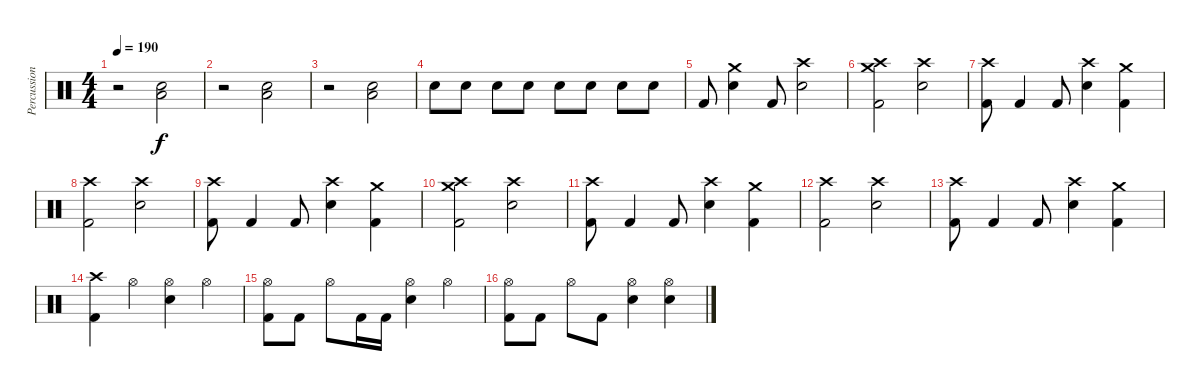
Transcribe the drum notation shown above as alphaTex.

\track ("Percussion" "Percussion") {instrument percussion}
\staff {score}
\articulation defaults
\ts (4 4)
\tempo 190
\clef neutral
\ks c
r.2{dy f} ("Low Floor Tom (hit)" "Electric Snare (hit)").2 |
r.2 ("Low Floor Tom (hit)" "Electric Snare (hit)").2 |
r.2 ("Low Floor Tom (hit)" "Electric Snare (hit)").2 |
"Electric Snare (hit)".8 "Electric Snare (hit)".8 "Electric Snare (hit)".8 "Electric Snare (hit)".8 "Electric Snare (hit)".8 "Electric Snare (hit)".8 "Electric Snare (hit)".8 "Electric Snare (hit)".8 |
"Kick (hit) 2".8 ("Crash medium (hit)" "Electric Snare (hit)").4 "Kick (hit) 2".8 ("Crash high (hit)" "Electric Snare (hit)").2 |
("Crash medium (hit)" "Crash high (hit)" "Kick (hit) 2").2 ("Crash high (hit)" "Electric Snare (hit)").2 |
("Crash high (hit)" "Kick (hit) 2").8 "Kick (hit) 2".4 "Kick (hit) 2".8 ("Crash high (hit)" "Electric Snare (hit)").4 ("Crash medium (hit)" "Kick (hit) 2").4 |
("Crash high (hit)" "Kick (hit) 2").2 ("Crash high (hit)" "Electric Snare (hit)").2 |
("Crash high (hit)" "Kick (hit) 2").8 "Kick (hit) 2".4 "Kick (hit) 2".8 ("Crash high (hit)" "Electric Snare (hit)").4 ("Crash medium (hit)" "Kick (hit) 2").4 |
("Crash medium (hit)" "Crash high (hit)" "Kick (hit) 2").2 ("Crash high (hit)" "Electric Snare (hit)").2 |
("Crash high (hit)" "Kick (hit) 2").8 "Kick (hit) 2".4 "Kick (hit) 2".8 ("Crash high (hit)" "Electric Snare (hit)").4 ("Crash medium (hit)" "Kick (hit) 2").4 |
("Crash high (hit)" "Kick (hit) 2").2 ("Crash high (hit)" "Electric Snare (hit)").2 |
("Crash high (hit)" "Kick (hit) 2").8 "Kick (hit) 2".4 "Kick (hit) 2".8 ("Crash high (hit)" "Electric Snare (hit)").4 ("Crash medium (hit)" "Kick (hit) 2").4 |
("Crash high (hit)" "Kick (hit) 2").4 "Hi-Hat (open)".4 ("Hi-Hat (open)" "Electric Snare (hit)").4 "Hi-Hat (open)".4 |
("Hi-Hat (open)" "Kick (hit) 2").8 "Kick (hit) 2".8 "Hi-Hat (open)".8 "Kick (hit) 2".16 "Kick (hit) 2".16 ("Hi-Hat (open)" "Electric Snare (hit)").4 "Hi-Hat (open)".4 |
("Hi-Hat (open)" "Kick (hit) 2").8 "Kick (hit) 2".8 "Hi-Hat (open)".8 "Kick (hit) 2".8 ("Hi-Hat (open)" "Electric Snare (hit)").4 ("Hi-Hat (open)" "Electric Snare (hit)").4
